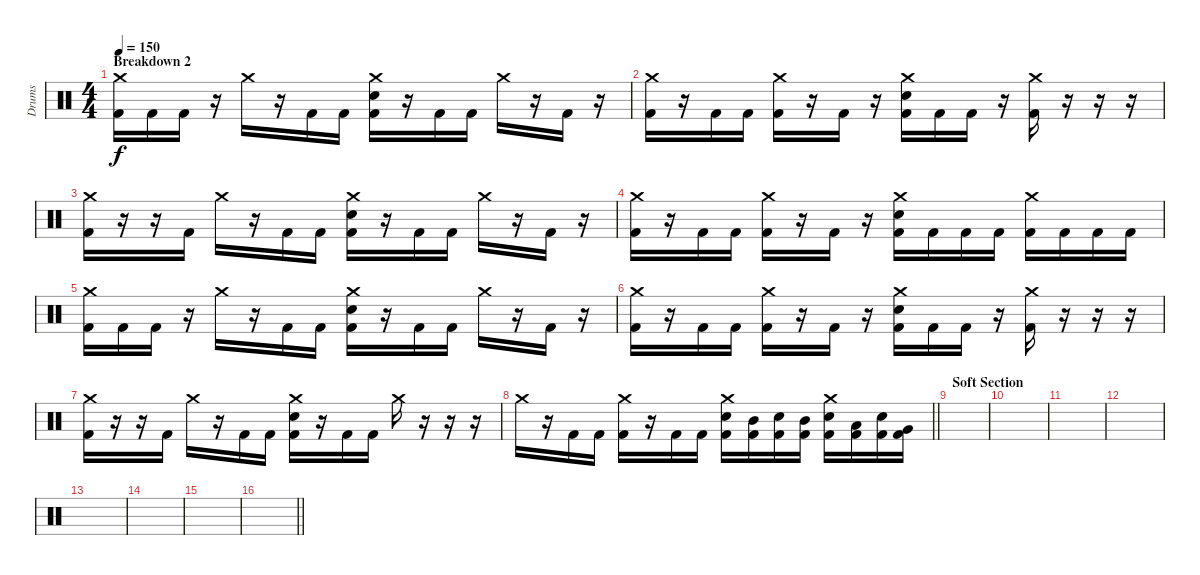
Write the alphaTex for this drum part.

\track ("Drums" "Drums") {instrument percussion}
\staff {score}
\articulation defaults
\ts (4 4)
\section ("" "Breakdown 2")
\tempo 150
\clef neutral
\ks c
("Crash medium (hit)" "Kick (hit) 2").16{dy f} "Kick (hit) 2".16 "Kick (hit) 2".16 r.16 "Crash medium (hit)".16 r.16 "Kick (hit) 2".16 "Kick (hit) 2".16 ("Crash medium (hit)" "Snare (hit) 2" "Kick (hit) 2").16 r.16 "Kick (hit) 2".16 "Kick (hit) 2".16 "Crash medium (hit)".16 r.16 "Kick (hit) 2".16 r.16 |
("Crash medium (hit)" "Kick (hit) 2").16 r.16 "Kick (hit) 2".16 "Kick (hit) 2".16 ("Crash medium (hit)" "Kick (hit) 2").16 r.16 "Kick (hit) 2".16 r.16 ("Crash medium (hit)" "Snare (hit) 2" "Kick (hit) 2").16 "Kick (hit) 2".16 "Kick (hit) 2".16 r.16 ("Crash medium (hit)" "Kick (hit) 2").16 r.16 r.16 r.16 |
("Crash medium (hit)" "Kick (hit) 2").16 r.16 r.16 "Kick (hit) 2".16 "Crash medium (hit)".16 r.16 "Kick (hit) 2".16 "Kick (hit) 2".16 ("Crash medium (hit)" "Snare (hit) 2" "Kick (hit) 2").16 r.16 "Kick (hit) 2".16 "Kick (hit) 2".16 "Crash medium (hit)".16 r.16 "Kick (hit) 2".16 r.16 |
("Crash medium (hit)" "Kick (hit) 2").16 r.16 "Kick (hit) 2".16 "Kick (hit) 2".16 ("Crash medium (hit)" "Kick (hit) 2").16 r.16 "Kick (hit) 2".16 r.16 ("Crash medium (hit)" "Snare (hit) 2" "Kick (hit) 2").16 "Kick (hit) 2".16 "Kick (hit) 2".16 "Kick (hit) 2".16 ("Crash medium (hit)" "Kick (hit) 2").16 "Kick (hit) 2".16 "Kick (hit) 2".16 "Kick (hit) 2".16 |
("Crash medium (hit)" "Kick (hit) 2").16 "Kick (hit) 2".16 "Kick (hit) 2".16 r.16 "Crash medium (hit)".16 r.16 "Kick (hit) 2".16 "Kick (hit) 2".16 ("Crash medium (hit)" "Snare (hit) 2" "Kick (hit) 2").16 r.16 "Kick (hit) 2".16 "Kick (hit) 2".16 "Crash medium (hit)".16 r.16 "Kick (hit) 2".16 r.16 |
("Crash medium (hit)" "Kick (hit) 2").16 r.16 "Kick (hit) 2".16 "Kick (hit) 2".16 ("Crash medium (hit)" "Kick (hit) 2").16 r.16 "Kick (hit) 2".16 r.16 ("Crash medium (hit)" "Snare (hit) 2" "Kick (hit) 2").16 "Kick (hit) 2".16 "Kick (hit) 2".16 r.16 ("Crash medium (hit)" "Kick (hit) 2").16 r.16 r.16 r.16 |
("Crash medium (hit)" "Kick (hit) 2").16 r.16 r.16 "Kick (hit) 2".16 "Crash medium (hit)".16 r.16 "Kick (hit) 2".16 "Kick (hit) 2".16 ("Crash medium (hit)" "Snare (hit) 2" "Kick (hit) 2").16 r.16 "Kick (hit) 2".16 "Kick (hit) 2".16 "Crash medium (hit)".16 r.16 r.16 r.16 |
\barLineRight lightlight "Crash medium (hit)".16
r.16 "Kick (hit) 2".16 "Kick (hit) 2".16 ("Crash medium (hit)" "Kick (hit) 2").16 r.16 "Kick (hit) 2".16 "Kick (hit) 2".16 ("Crash medium (hit)" "Snare (hit) 2" "Kick (hit) 2").16 ("Mid Tom (hit)" "Kick (hit) 2").16 ("Snare (hit) 2" "Kick (hit) 2").16 ("Mid Tom (hit)" "Kick (hit) 2").16 ("Crash medium (hit)" "Snare (hit) 2" "Kick (hit) 2").16 ("Low Tom (hit)" "Kick (hit) 2").16 ("Snare (hit) 2" "Kick (hit) 2").16 ("Very Low Tom (hit)" "Kick (hit) 2").16 |
\section ("" "Soft Section")
|
|
|
|
|
|
|
\barLineRight lightlight
